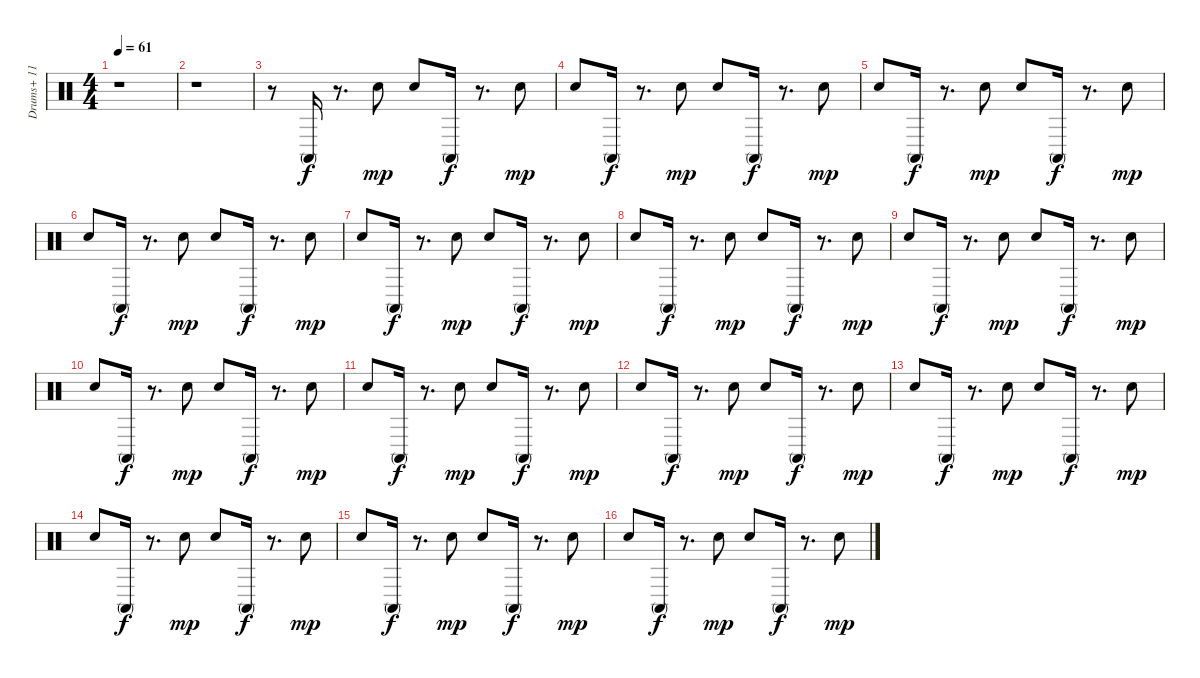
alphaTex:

\track ("Drums+ 11" "Drums+ 11") {instrument percussion}
\staff {score}
\articulation defaults
\ts (4 4)
\tempo 61
\clef neutral
\ks c
r.1{dy mp} |
r.1 |
r.8 "Conga high (mute)".16{dy f} r.8{d} "Hand Clap (hit)".8{dy mp} "Hand Clap (hit)".8 "Conga high (mute)".16{dy f} r.8{d} "Hand Clap (hit)".8{dy mp} |
"Hand Clap (hit)".8 "Conga high (mute)".16{dy f} r.8{d} "Hand Clap (hit)".8{dy mp} "Hand Clap (hit)".8 "Conga high (mute)".16{dy f} r.8{d} "Hand Clap (hit)".8{dy mp} |
"Hand Clap (hit)".8 "Conga high (mute)".16{dy f} r.8{d} "Hand Clap (hit)".8{dy mp} "Hand Clap (hit)".8 "Conga high (mute)".16{dy f} r.8{d} "Hand Clap (hit)".8{dy mp} |
"Hand Clap (hit)".8 "Conga high (mute)".16{dy f} r.8{d} "Hand Clap (hit)".8{dy mp} "Hand Clap (hit)".8 "Conga high (mute)".16{dy f} r.8{d} "Hand Clap (hit)".8{dy mp} |
"Hand Clap (hit)".8 "Conga high (mute)".16{dy f} r.8{d} "Hand Clap (hit)".8{dy mp} "Hand Clap (hit)".8 "Conga high (mute)".16{dy f} r.8{d} "Hand Clap (hit)".8{dy mp} |
"Hand Clap (hit)".8 "Conga high (mute)".16{dy f} r.8{d} "Hand Clap (hit)".8{dy mp} "Hand Clap (hit)".8 "Conga high (mute)".16{dy f} r.8{d} "Hand Clap (hit)".8{dy mp} |
"Hand Clap (hit)".8 "Conga high (mute)".16{dy f} r.8{d} "Hand Clap (hit)".8{dy mp} "Hand Clap (hit)".8 "Conga high (mute)".16{dy f} r.8{d} "Hand Clap (hit)".8{dy mp} |
"Hand Clap (hit)".8 "Conga high (mute)".16{dy f} r.8{d} "Hand Clap (hit)".8{dy mp} "Hand Clap (hit)".8 "Conga high (mute)".16{dy f} r.8{d} "Hand Clap (hit)".8{dy mp} |
"Hand Clap (hit)".8 "Conga high (mute)".16{dy f} r.8{d} "Hand Clap (hit)".8{dy mp} "Hand Clap (hit)".8 "Conga high (mute)".16{dy f} r.8{d} "Hand Clap (hit)".8{dy mp} |
"Hand Clap (hit)".8 "Conga high (mute)".16{dy f} r.8{d} "Hand Clap (hit)".8{dy mp} "Hand Clap (hit)".8 "Conga high (mute)".16{dy f} r.8{d} "Hand Clap (hit)".8{dy mp} |
"Hand Clap (hit)".8 "Conga high (mute)".16{dy f} r.8{d} "Hand Clap (hit)".8{dy mp} "Hand Clap (hit)".8 "Conga high (mute)".16{dy f} r.8{d} "Hand Clap (hit)".8{dy mp} |
"Hand Clap (hit)".8 "Conga high (mute)".16{dy f} r.8{d} "Hand Clap (hit)".8{dy mp} "Hand Clap (hit)".8 "Conga high (mute)".16{dy f} r.8{d} "Hand Clap (hit)".8{dy mp} |
"Hand Clap (hit)".8 "Conga high (mute)".16{dy f} r.8{d} "Hand Clap (hit)".8{dy mp} "Hand Clap (hit)".8 "Conga high (mute)".16{dy f} r.8{d} "Hand Clap (hit)".8{dy mp} |
"Hand Clap (hit)".8 "Conga high (mute)".16{dy f} r.8{d} "Hand Clap (hit)".8{dy mp} "Hand Clap (hit)".8 "Conga high (mute)".16{dy f} r.8{d} "Hand Clap (hit)".8{dy mp}
